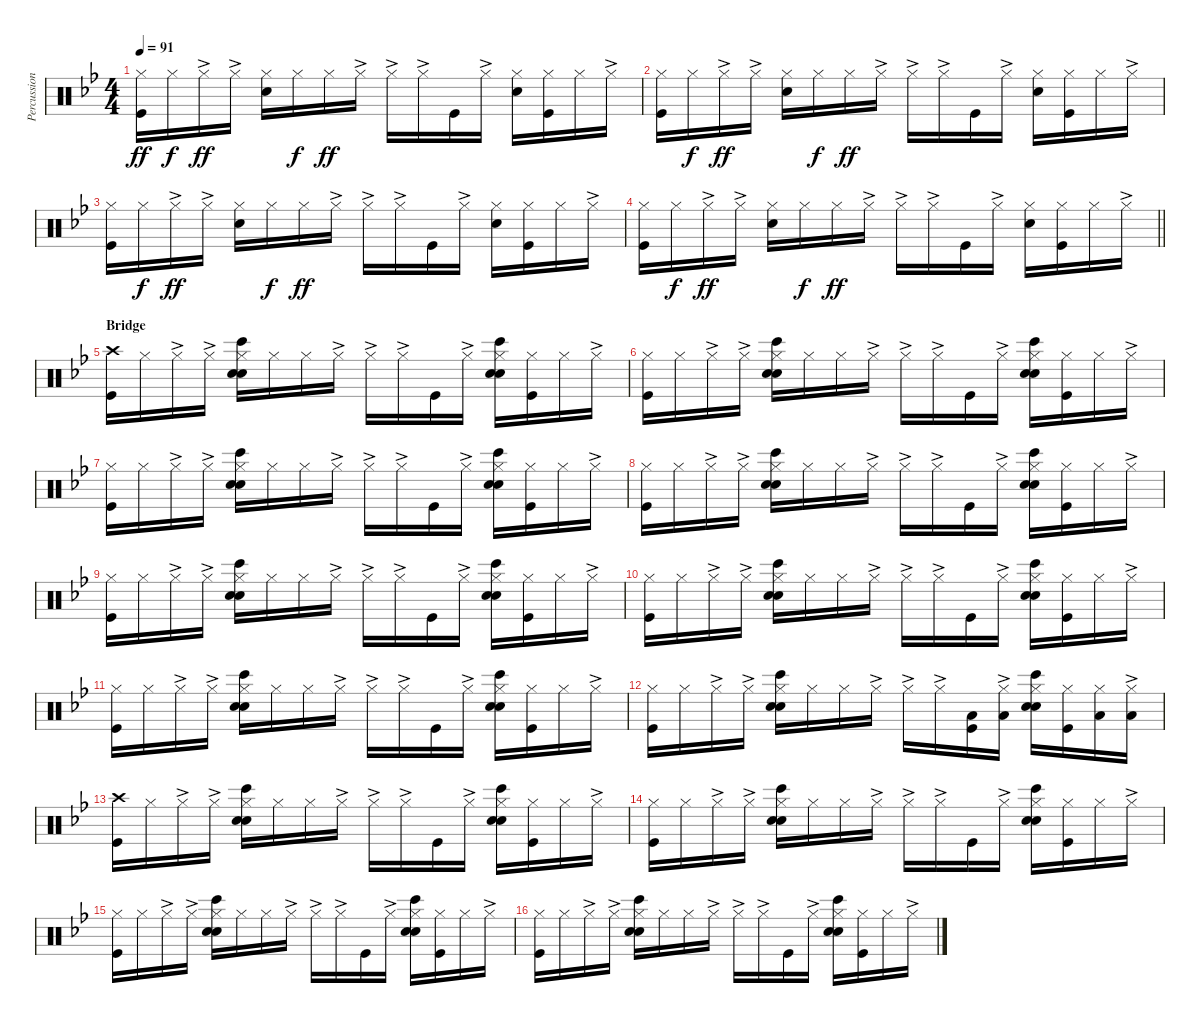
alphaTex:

\track ("Percussion" "Percussion") {instrument percussion}
\staff {score}
\articulation defaults
\ts (4 4)
\tempo 91
\clef neutral
\ks bb
("Hi-Hat (closed)" "Kick (hit)").16{dy ff} "Hi-Hat (closed)".16{dy f} "Hi-Hat (closed)"{ac}.16{dy ff} "Hi-Hat (closed)"{ac}.16 ("Hi-Hat (closed)" "Snare (hit) 2").16 "Hi-Hat (closed)".16{dy f} "Hi-Hat (closed)".16{dy ff} "Hi-Hat (closed)"{ac}.16 "Hi-Hat (closed)"{ac}.16 "Hi-Hat (closed)"{ac}.16 "Kick (hit)".16 "Hi-Hat (closed)"{ac}.16 ("Hi-Hat (closed)" "Snare (hit) 2").16 ("Hi-Hat (closed)" "Kick (hit)").16 "Hi-Hat (closed)".16 "Hi-Hat (closed)"{ac}.16 |
("Hi-Hat (closed)" "Kick (hit)").16 "Hi-Hat (closed)".16{dy f} "Hi-Hat (closed)"{ac}.16{dy ff} "Hi-Hat (closed)"{ac}.16 ("Hi-Hat (closed)" "Snare (hit) 2").16 "Hi-Hat (closed)".16{dy f} "Hi-Hat (closed)".16{dy ff} "Hi-Hat (closed)"{ac}.16 "Hi-Hat (closed)"{ac}.16 "Hi-Hat (closed)"{ac}.16 "Kick (hit)".16 "Hi-Hat (closed)"{ac}.16 ("Hi-Hat (closed)" "Snare (hit) 2").16 ("Hi-Hat (closed)" "Kick (hit)").16 "Hi-Hat (closed)".16 "Hi-Hat (closed)"{ac}.16 |
("Hi-Hat (closed)" "Kick (hit)").16 "Hi-Hat (closed)".16{dy f} "Hi-Hat (closed)"{ac}.16{dy ff} "Hi-Hat (closed)"{ac}.16 ("Hi-Hat (closed)" "Snare (hit) 2").16 "Hi-Hat (closed)".16{dy f} "Hi-Hat (closed)".16{dy ff} "Hi-Hat (closed)"{ac}.16 "Hi-Hat (closed)"{ac}.16 "Hi-Hat (closed)"{ac}.16 "Kick (hit)".16 "Hi-Hat (closed)"{ac}.16 ("Hi-Hat (closed)" "Snare (hit) 2").16 ("Hi-Hat (closed)" "Kick (hit)").16 "Hi-Hat (closed)".16 "Hi-Hat (closed)"{ac}.16 |
\barLineRight lightlight
("Hi-Hat (closed)" "Kick (hit)").16 "Hi-Hat (closed)".16{dy f} "Hi-Hat (closed)"{ac}.16{dy ff} "Hi-Hat (closed)"{ac}.16 ("Hi-Hat (closed)" "Snare (hit) 2").16 "Hi-Hat (closed)".16{dy f} "Hi-Hat (closed)".16{dy ff} "Hi-Hat (closed)"{ac}.16 "Hi-Hat (closed)"{ac}.16 "Hi-Hat (closed)"{ac}.16 "Kick (hit)".16 "Hi-Hat (closed)"{ac}.16 ("Hi-Hat (closed)" "Snare (hit) 2").16 ("Hi-Hat (closed)" "Kick (hit)").16 "Hi-Hat (closed)".16 "Hi-Hat (closed)"{ac}.16 |
\section ("" "Bridge")
("Crash high (hit)" "Kick (hit)").16 "Hi-Hat (closed)".16 "Hi-Hat (closed)"{ac}.16 "Hi-Hat (closed)"{ac}.16 ("Hi-Hat (closed)" "Snare (hit) 2" "Bongo High (hit)" "Hand Clap (hit)").16 "Hi-Hat (closed)".16 "Hi-Hat (closed)".16 "Hi-Hat (closed)"{ac}.16 "Hi-Hat (closed)"{ac}.16 "Hi-Hat (closed)"{ac}.16 "Kick (hit)".16 "Hi-Hat (closed)"{ac}.16 ("Hi-Hat (closed)" "Snare (hit) 2" "Bongo High (hit)" "Hand Clap (hit)").16 ("Hi-Hat (closed)" "Kick (hit)").16 "Hi-Hat (closed)".16 "Hi-Hat (closed)"{ac}.16 |
("Hi-Hat (closed)" "Kick (hit)").16 "Hi-Hat (closed)".16 "Hi-Hat (closed)"{ac}.16 "Hi-Hat (closed)"{ac}.16 ("Hi-Hat (closed)" "Snare (hit) 2" "Bongo High (hit)" "Hand Clap (hit)").16 "Hi-Hat (closed)".16 "Hi-Hat (closed)".16 "Hi-Hat (closed)"{ac}.16 "Hi-Hat (closed)"{ac}.16 "Hi-Hat (closed)"{ac}.16 "Kick (hit)".16 "Hi-Hat (closed)"{ac}.16 ("Hi-Hat (closed)" "Snare (hit) 2" "Bongo High (hit)" "Hand Clap (hit)").16 ("Hi-Hat (closed)" "Kick (hit)").16 "Hi-Hat (closed)".16 "Hi-Hat (closed)"{ac}.16 |
("Hi-Hat (closed)" "Kick (hit)").16 "Hi-Hat (closed)".16 "Hi-Hat (closed)"{ac}.16 "Hi-Hat (closed)"{ac}.16 ("Hi-Hat (closed)" "Snare (hit) 2" "Bongo High (hit)" "Hand Clap (hit)").16 "Hi-Hat (closed)".16 "Hi-Hat (closed)".16 "Hi-Hat (closed)"{ac}.16 "Hi-Hat (closed)"{ac}.16 "Hi-Hat (closed)"{ac}.16 "Kick (hit)".16 "Hi-Hat (closed)"{ac}.16 ("Hi-Hat (closed)" "Snare (hit) 2" "Bongo High (hit)" "Hand Clap (hit)").16 ("Hi-Hat (closed)" "Kick (hit)").16 "Hi-Hat (closed)".16 "Hi-Hat (closed)"{ac}.16 |
("Hi-Hat (closed)" "Kick (hit)").16 "Hi-Hat (closed)".16 "Hi-Hat (closed)"{ac}.16 "Hi-Hat (closed)"{ac}.16 ("Hi-Hat (closed)" "Snare (hit) 2" "Bongo High (hit)" "Hand Clap (hit)").16 "Hi-Hat (closed)".16 "Hi-Hat (closed)".16 "Hi-Hat (closed)"{ac}.16 "Hi-Hat (closed)"{ac}.16 "Hi-Hat (closed)"{ac}.16 "Kick (hit)".16 "Hi-Hat (closed)"{ac}.16 ("Hi-Hat (closed)" "Snare (hit) 2" "Bongo High (hit)" "Hand Clap (hit)").16 ("Hi-Hat (closed)" "Kick (hit)").16 "Hi-Hat (closed)".16 "Hi-Hat (closed)"{ac}.16 |
("Hi-Hat (closed)" "Kick (hit)").16 "Hi-Hat (closed)".16 "Hi-Hat (closed)"{ac}.16 "Hi-Hat (closed)"{ac}.16 ("Hi-Hat (closed)" "Snare (hit) 2" "Bongo High (hit)" "Hand Clap (hit)").16 "Hi-Hat (closed)".16 "Hi-Hat (closed)".16 "Hi-Hat (closed)"{ac}.16 "Hi-Hat (closed)"{ac}.16 "Hi-Hat (closed)"{ac}.16 "Kick (hit)".16 "Hi-Hat (closed)"{ac}.16 ("Hi-Hat (closed)" "Snare (hit) 2" "Bongo High (hit)" "Hand Clap (hit)").16 ("Hi-Hat (closed)" "Kick (hit)").16 "Hi-Hat (closed)".16 "Hi-Hat (closed)"{ac}.16 |
("Hi-Hat (closed)" "Kick (hit)").16 "Hi-Hat (closed)".16 "Hi-Hat (closed)"{ac}.16 "Hi-Hat (closed)"{ac}.16 ("Hi-Hat (closed)" "Snare (hit) 2" "Bongo High (hit)" "Hand Clap (hit)").16 "Hi-Hat (closed)".16 "Hi-Hat (closed)".16 "Hi-Hat (closed)"{ac}.16 "Hi-Hat (closed)"{ac}.16 "Hi-Hat (closed)"{ac}.16 "Kick (hit)".16 "Hi-Hat (closed)"{ac}.16 ("Hi-Hat (closed)" "Snare (hit) 2" "Bongo High (hit)" "Hand Clap (hit)").16 ("Hi-Hat (closed)" "Kick (hit)").16 "Hi-Hat (closed)".16 "Hi-Hat (closed)"{ac}.16 |
("Hi-Hat (closed)" "Kick (hit)").16 "Hi-Hat (closed)".16 "Hi-Hat (closed)"{ac}.16 "Hi-Hat (closed)"{ac}.16 ("Hi-Hat (closed)" "Snare (hit) 2" "Bongo High (hit)" "Hand Clap (hit)").16 "Hi-Hat (closed)".16 "Hi-Hat (closed)".16 "Hi-Hat (closed)"{ac}.16 "Hi-Hat (closed)"{ac}.16 "Hi-Hat (closed)"{ac}.16 "Kick (hit)".16 "Hi-Hat (closed)"{ac}.16 ("Hi-Hat (closed)" "Snare (hit) 2" "Bongo High (hit)" "Hand Clap (hit)").16 ("Hi-Hat (closed)" "Kick (hit)").16 "Hi-Hat (closed)".16 "Hi-Hat (closed)"{ac}.16 |
("Hi-Hat (closed)" "Kick (hit)").16 "Hi-Hat (closed)".16 "Hi-Hat (closed)"{ac}.16 "Hi-Hat (closed)"{ac}.16 ("Hi-Hat (closed)" "Snare (hit) 2" "Bongo High (hit)" "Hand Clap (hit)").16 "Hi-Hat (closed)".16 "Hi-Hat (closed)".16 "Hi-Hat (closed)"{ac}.16 "Hi-Hat (closed)"{ac}.16 "Hi-Hat (closed)"{ac}.16 ("Low Tom (hit)" "Kick (hit)").16 ("Hi-Hat (closed)"{ac} "Low Tom (hit)").16 ("Hi-Hat (closed)" "Snare (hit) 2" "Bongo High (hit)" "Hand Clap (hit)").16 ("Hi-Hat (closed)" "Kick (hit)").16 ("Hi-Hat (closed)" "Low Tom (hit)").16 ("Hi-Hat (closed)"{ac} "Low Tom (hit)").16 |
("Crash high (hit)" "Kick (hit)").16 "Hi-Hat (closed)".16 "Hi-Hat (closed)"{ac}.16 "Hi-Hat (closed)"{ac}.16 ("Hi-Hat (closed)" "Snare (hit) 2" "Bongo High (hit)" "Hand Clap (hit)").16 "Hi-Hat (closed)".16 "Hi-Hat (closed)".16 "Hi-Hat (closed)"{ac}.16 "Hi-Hat (closed)"{ac}.16 "Hi-Hat (closed)"{ac}.16 "Kick (hit)".16 "Hi-Hat (closed)"{ac}.16 ("Hi-Hat (closed)" "Snare (hit) 2" "Bongo High (hit)" "Hand Clap (hit)").16 ("Hi-Hat (closed)" "Kick (hit)").16 "Hi-Hat (closed)".16 "Hi-Hat (closed)"{ac}.16 |
("Hi-Hat (closed)" "Kick (hit)").16 "Hi-Hat (closed)".16 "Hi-Hat (closed)"{ac}.16 "Hi-Hat (closed)"{ac}.16 ("Hi-Hat (closed)" "Snare (hit) 2" "Bongo High (hit)" "Hand Clap (hit)").16 "Hi-Hat (closed)".16 "Hi-Hat (closed)".16 "Hi-Hat (closed)"{ac}.16 "Hi-Hat (closed)"{ac}.16 "Hi-Hat (closed)"{ac}.16 "Kick (hit)".16 "Hi-Hat (closed)"{ac}.16 ("Hi-Hat (closed)" "Snare (hit) 2" "Bongo High (hit)" "Hand Clap (hit)").16 ("Hi-Hat (closed)" "Kick (hit)").16 "Hi-Hat (closed)".16 "Hi-Hat (closed)"{ac}.16 |
("Hi-Hat (closed)" "Kick (hit)").16 "Hi-Hat (closed)".16 "Hi-Hat (closed)"{ac}.16 "Hi-Hat (closed)"{ac}.16 ("Hi-Hat (closed)" "Snare (hit) 2" "Bongo High (hit)" "Hand Clap (hit)").16 "Hi-Hat (closed)".16 "Hi-Hat (closed)".16 "Hi-Hat (closed)"{ac}.16 "Hi-Hat (closed)"{ac}.16 "Hi-Hat (closed)"{ac}.16 "Kick (hit)".16 "Hi-Hat (closed)"{ac}.16 ("Hi-Hat (closed)" "Snare (hit) 2" "Bongo High (hit)" "Hand Clap (hit)").16 ("Hi-Hat (closed)" "Kick (hit)").16 "Hi-Hat (closed)".16 "Hi-Hat (closed)"{ac}.16 |
("Hi-Hat (closed)" "Kick (hit)").16 "Hi-Hat (closed)".16 "Hi-Hat (closed)"{ac}.16 "Hi-Hat (closed)"{ac}.16 ("Hi-Hat (closed)" "Snare (hit) 2" "Bongo High (hit)" "Hand Clap (hit)").16 "Hi-Hat (closed)".16 "Hi-Hat (closed)".16 "Hi-Hat (closed)"{ac}.16 "Hi-Hat (closed)"{ac}.16 "Hi-Hat (closed)"{ac}.16 "Kick (hit)".16 "Hi-Hat (closed)"{ac}.16 ("Hi-Hat (closed)" "Snare (hit) 2" "Bongo High (hit)" "Hand Clap (hit)").16 ("Hi-Hat (closed)" "Kick (hit)").16 "Hi-Hat (closed)".16 "Hi-Hat (closed)"{ac}.16
